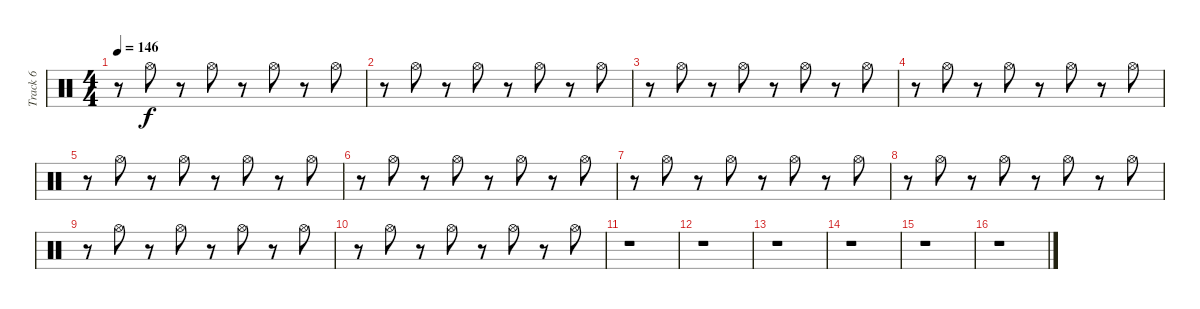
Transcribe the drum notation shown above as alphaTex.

\track ("Track 6" "Track 6") {instrument percussion}
\staff {score}
\articulation defaults
\ts (4 4)
\tempo 146
\clef neutral
\ks c
r.8{dy f} "Hi-Hat (open)".8 r.8 "Hi-Hat (open)".8 r.8 "Hi-Hat (open)".8 r.8 "Hi-Hat (open)".8 |
r.8 "Hi-Hat (open)".8 r.8 "Hi-Hat (open)".8 r.8 "Hi-Hat (open)".8 r.8 "Hi-Hat (open)".8 |
r.8 "Hi-Hat (open)".8 r.8 "Hi-Hat (open)".8 r.8 "Hi-Hat (open)".8 r.8 "Hi-Hat (open)".8 |
r.8 "Hi-Hat (open)".8 r.8 "Hi-Hat (open)".8 r.8 "Hi-Hat (open)".8 r.8 "Hi-Hat (open)".8 |
r.8 "Hi-Hat (open)".8 r.8 "Hi-Hat (open)".8 r.8 "Hi-Hat (open)".8 r.8 "Hi-Hat (open)".8 |
r.8 "Hi-Hat (open)".8 r.8 "Hi-Hat (open)".8 r.8 "Hi-Hat (open)".8 r.8 "Hi-Hat (open)".8 |
r.8 "Hi-Hat (open)".8 r.8 "Hi-Hat (open)".8 r.8 "Hi-Hat (open)".8 r.8 "Hi-Hat (open)".8 |
r.8 "Hi-Hat (open)".8 r.8 "Hi-Hat (open)".8 r.8 "Hi-Hat (open)".8 r.8 "Hi-Hat (open)".8 |
r.8 "Hi-Hat (open)".8 r.8 "Hi-Hat (open)".8 r.8 "Hi-Hat (open)".8 r.8 "Hi-Hat (open)".8 |
r.8 "Hi-Hat (open)".8 r.8 "Hi-Hat (open)".8 r.8 "Hi-Hat (open)".8 r.8 "Hi-Hat (open)".8 |
r.1 |
r.1 |
r.1 |
r.1 |
r.1 |
r.1
